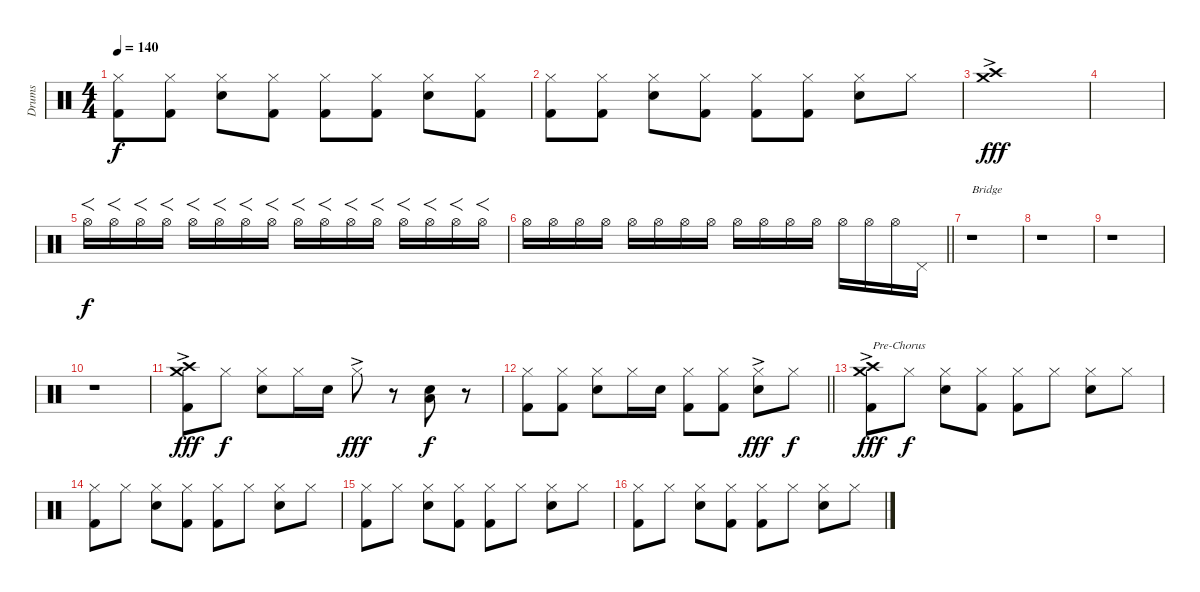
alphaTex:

\track ("Drums" "Drums") {instrument percussion}
\staff {score}
\articulation defaults
\ts (4 4)
\tempo 140
\clef neutral
\ks c
("Hi-Hat (closed)" "Kick (hit) 2").8{dy f} ("Hi-Hat (closed)" "Kick (hit) 2").8 ("Hi-Hat (closed)" "Electric Snare (hit)").8 ("Hi-Hat (closed)" "Kick (hit) 2").8 ("Hi-Hat (closed)" "Kick (hit) 2").8 ("Hi-Hat (closed)" "Kick (hit) 2").8 ("Hi-Hat (closed)" "Electric Snare (hit)").8 ("Hi-Hat (closed)" "Kick (hit) 2").8 |
("Hi-Hat (closed)" "Kick (hit) 2").8 ("Hi-Hat (closed)" "Kick (hit) 2").8 ("Hi-Hat (closed)" "Electric Snare (hit)").8 ("Hi-Hat (closed)" "Kick (hit) 2").8 ("Hi-Hat (closed)" "Kick (hit) 2").8 ("Hi-Hat (closed)" "Kick (hit) 2").8 ("Hi-Hat (closed)" "Electric Snare (hit)").8 "Hi-Hat (closed)".8 |
("Crash medium (hit)"{ac} "Crash high (hit)"{ac}).1{dy fff} |
|
"Hi-Hat (open)".16{f dy f} "Hi-Hat (open)".16{f} "Hi-Hat (open)".16{f} "Hi-Hat (open)".16{f} "Hi-Hat (open)".16{f} "Hi-Hat (open)".16{f} "Hi-Hat (open)".16{f} "Hi-Hat (open)".16{f} "Hi-Hat (open)".16{f} "Hi-Hat (open)".16{f} "Hi-Hat (open)".16{f} "Hi-Hat (open)".16{f} "Hi-Hat (open)".16{f} "Hi-Hat (open)".16{f} "Hi-Hat (open)".16{f} "Hi-Hat (open)".16{f} |
\barLineRight lightlight "Hi-Hat (open)".16 "Hi-Hat (open)".16 "Hi-Hat (open)".16 "Hi-Hat (open)".16 "Hi-Hat (open)".16 "Hi-Hat (open)".16 "Hi-Hat (open)".16 "Hi-Hat (open)".16 "Hi-Hat (open)".16 "Hi-Hat (open)".16 "Hi-Hat (open)".16 "Hi-Hat (open)".16 "Hi-Hat (open)".16 "Hi-Hat (open)".16 "Hi-Hat (open)".16 "Pedal Hi-Hat (hit)".16
|
r.1{txt "Bridge"} |
r.1 |
r.1 |
r.1 |
("Crash medium (hit)"{ac} "Crash high (hit)"{ac} "Kick (hit) 2").8{dy fff} "Hi-Hat (closed)".8{dy f} ("Hi-Hat (closed)" "Electric Snare (hit)").8 "Hi-Hat (closed)".16 "Electric Snare (hit)".16 "Hi-Hat (closed)"{ac}.8{dy fff} r.8 ("Electric Snare (hit)" "Low Floor Tom (hit)").8{dy f} r.8 |
\barLineRight lightlight
("Hi-Hat (closed)" "Kick (hit) 2").8 ("Hi-Hat (closed)" "Kick (hit) 2").8 ("Hi-Hat (closed)" "Electric Snare (hit)").8 "Hi-Hat (closed)".16 "Electric Snare (hit)".16 ("Hi-Hat (closed)" "Kick (hit) 2").8 ("Hi-Hat (closed)" "Kick (hit) 2").8 ("Hi-Hat (closed)"{ac} "Electric Snare (hit)").8{dy fff} "Hi-Hat (closed)".8{dy f} |
("Crash medium (hit)"{ac} "Crash high (hit)"{ac} "Kick (hit) 2").8{txt "Pre-Chorus" dy fff} "Hi-Hat (closed)".8{dy f} ("Hi-Hat (closed)" "Electric Snare (hit)").8 ("Hi-Hat (closed)" "Kick (hit) 2").8 ("Hi-Hat (closed)" "Kick (hit) 2").8 "Hi-Hat (closed)".8 ("Hi-Hat (closed)" "Electric Snare (hit)").8 "Hi-Hat (closed)".8 |
("Hi-Hat (closed)" "Kick (hit) 2").8 "Hi-Hat (closed)".8 ("Hi-Hat (closed)" "Electric Snare (hit)").8 ("Hi-Hat (closed)" "Kick (hit) 2").8 ("Hi-Hat (closed)" "Kick (hit) 2").8 "Hi-Hat (closed)".8 ("Hi-Hat (closed)" "Electric Snare (hit)").8 "Hi-Hat (closed)".8 |
("Hi-Hat (closed)" "Kick (hit) 2").8 "Hi-Hat (closed)".8 ("Hi-Hat (closed)" "Electric Snare (hit)").8 ("Hi-Hat (closed)" "Kick (hit) 2").8 ("Hi-Hat (closed)" "Kick (hit) 2").8 "Hi-Hat (closed)".8 ("Hi-Hat (closed)" "Electric Snare (hit)").8 "Hi-Hat (closed)".8 |
("Hi-Hat (closed)" "Kick (hit) 2").8 "Hi-Hat (closed)".8 ("Hi-Hat (closed)" "Electric Snare (hit)").8 ("Hi-Hat (closed)" "Kick (hit) 2").8 ("Hi-Hat (closed)" "Kick (hit) 2").8 "Hi-Hat (closed)".8 ("Hi-Hat (closed)" "Electric Snare (hit)").8 "Hi-Hat (closed)".8
